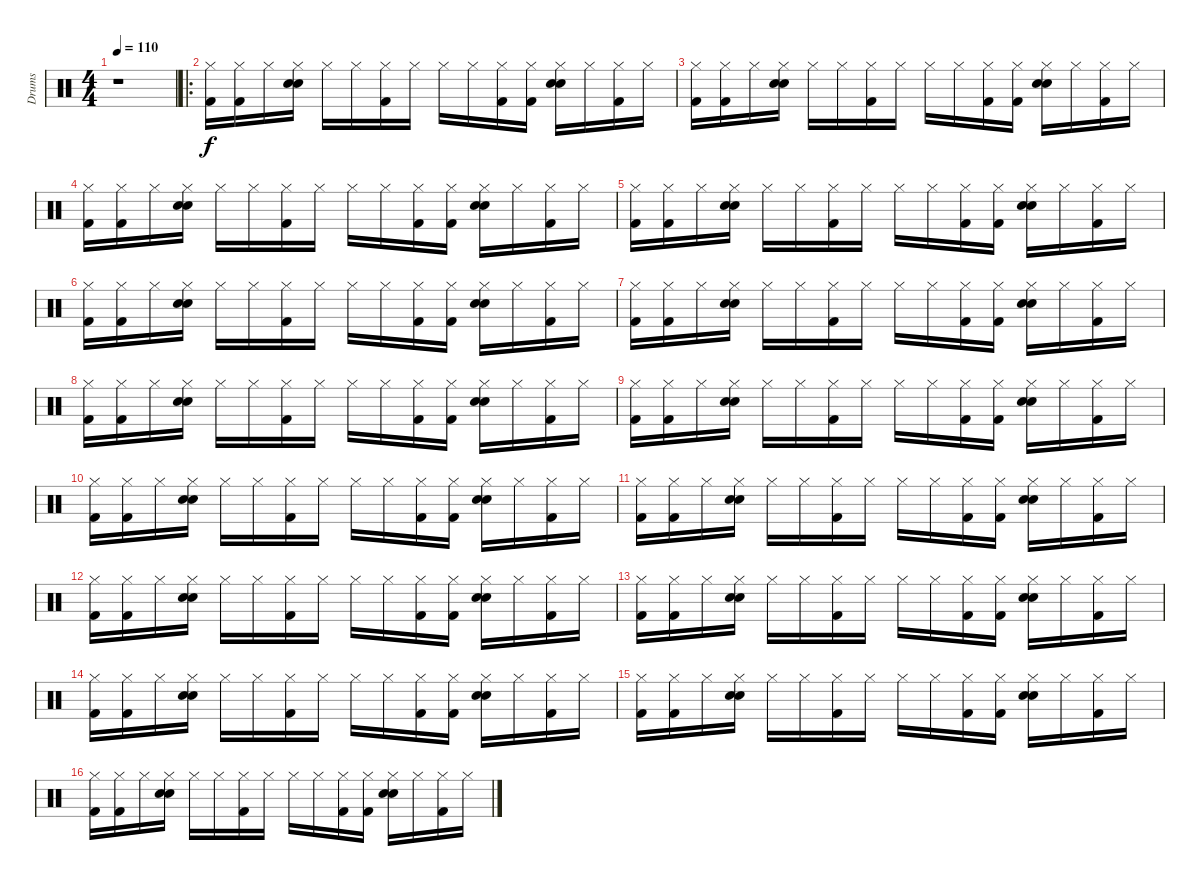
\track ("Drums" "Drums") {instrument percussion}
\staff {score}
\articulation defaults
\ts (4 4)
\tempo 110
\clef neutral
\ks c
r.1{dy f} |
\ro
("Hi-Hat (closed)" "Kick (hit) 2").16 ("Hi-Hat (closed)" "Kick (hit) 2").16 "Hi-Hat (closed)".16 ("Hi-Hat (closed)" "Electric Snare (hit)" "Snare (hit) 2").16 "Hi-Hat (closed)".16 "Hi-Hat (closed)".16 ("Hi-Hat (closed)" "Kick (hit) 2").16 "Hi-Hat (closed)".16 "Hi-Hat (closed)".16 "Hi-Hat (closed)".16 ("Hi-Hat (closed)" "Kick (hit) 2").16 ("Hi-Hat (closed)" "Kick (hit) 2").16 ("Hi-Hat (closed)" "Electric Snare (hit)" "Snare (hit) 2").16 "Hi-Hat (closed)".16 ("Hi-Hat (closed)" "Kick (hit) 2").16 "Hi-Hat (closed)".16 |
("Hi-Hat (closed)" "Kick (hit) 2").16 ("Hi-Hat (closed)" "Kick (hit) 2").16 "Hi-Hat (closed)".16 ("Hi-Hat (closed)" "Electric Snare (hit)" "Snare (hit) 2").16 "Hi-Hat (closed)".16 "Hi-Hat (closed)".16 ("Hi-Hat (closed)" "Kick (hit) 2").16 "Hi-Hat (closed)".16 "Hi-Hat (closed)".16 "Hi-Hat (closed)".16 ("Hi-Hat (closed)" "Kick (hit) 2").16 ("Hi-Hat (closed)" "Kick (hit) 2").16 ("Hi-Hat (closed)" "Electric Snare (hit)" "Snare (hit) 2").16 "Hi-Hat (closed)".16 ("Hi-Hat (closed)" "Kick (hit) 2").16 "Hi-Hat (closed)".16 |
("Hi-Hat (closed)" "Kick (hit) 2").16 ("Hi-Hat (closed)" "Kick (hit) 2").16 "Hi-Hat (closed)".16 ("Hi-Hat (closed)" "Electric Snare (hit)" "Snare (hit) 2").16 "Hi-Hat (closed)".16 "Hi-Hat (closed)".16 ("Hi-Hat (closed)" "Kick (hit) 2").16 "Hi-Hat (closed)".16 "Hi-Hat (closed)".16 "Hi-Hat (closed)".16 ("Hi-Hat (closed)" "Kick (hit) 2").16 ("Hi-Hat (closed)" "Kick (hit) 2").16 ("Hi-Hat (closed)" "Electric Snare (hit)" "Snare (hit) 2").16 "Hi-Hat (closed)".16 ("Hi-Hat (closed)" "Kick (hit) 2").16 "Hi-Hat (closed)".16 |
("Hi-Hat (closed)" "Kick (hit) 2").16 ("Hi-Hat (closed)" "Kick (hit) 2").16 "Hi-Hat (closed)".16 ("Hi-Hat (closed)" "Electric Snare (hit)" "Snare (hit) 2").16 "Hi-Hat (closed)".16 "Hi-Hat (closed)".16 ("Hi-Hat (closed)" "Kick (hit) 2").16 "Hi-Hat (closed)".16 "Hi-Hat (closed)".16 "Hi-Hat (closed)".16 ("Hi-Hat (closed)" "Kick (hit) 2").16 ("Hi-Hat (closed)" "Kick (hit) 2").16 ("Hi-Hat (closed)" "Electric Snare (hit)" "Snare (hit) 2").16 "Hi-Hat (closed)".16 ("Hi-Hat (closed)" "Kick (hit) 2").16 "Hi-Hat (closed)".16 |
("Hi-Hat (closed)" "Kick (hit) 2").16 ("Hi-Hat (closed)" "Kick (hit) 2").16 "Hi-Hat (closed)".16 ("Hi-Hat (closed)" "Electric Snare (hit)" "Snare (hit) 2").16 "Hi-Hat (closed)".16 "Hi-Hat (closed)".16 ("Hi-Hat (closed)" "Kick (hit) 2").16 "Hi-Hat (closed)".16 "Hi-Hat (closed)".16 "Hi-Hat (closed)".16 ("Hi-Hat (closed)" "Kick (hit) 2").16 ("Hi-Hat (closed)" "Kick (hit) 2").16 ("Hi-Hat (closed)" "Electric Snare (hit)" "Snare (hit) 2").16 "Hi-Hat (closed)".16 ("Hi-Hat (closed)" "Kick (hit) 2").16 "Hi-Hat (closed)".16 |
("Hi-Hat (closed)" "Kick (hit) 2").16 ("Hi-Hat (closed)" "Kick (hit) 2").16 "Hi-Hat (closed)".16 ("Hi-Hat (closed)" "Electric Snare (hit)" "Snare (hit) 2").16 "Hi-Hat (closed)".16 "Hi-Hat (closed)".16 ("Hi-Hat (closed)" "Kick (hit) 2").16 "Hi-Hat (closed)".16 "Hi-Hat (closed)".16 "Hi-Hat (closed)".16 ("Hi-Hat (closed)" "Kick (hit) 2").16 ("Hi-Hat (closed)" "Kick (hit) 2").16 ("Hi-Hat (closed)" "Electric Snare (hit)" "Snare (hit) 2").16 "Hi-Hat (closed)".16 ("Hi-Hat (closed)" "Kick (hit) 2").16 "Hi-Hat (closed)".16 |
("Hi-Hat (closed)" "Kick (hit) 2").16 ("Hi-Hat (closed)" "Kick (hit) 2").16 "Hi-Hat (closed)".16 ("Hi-Hat (closed)" "Electric Snare (hit)" "Snare (hit) 2").16 "Hi-Hat (closed)".16 "Hi-Hat (closed)".16 ("Hi-Hat (closed)" "Kick (hit) 2").16 "Hi-Hat (closed)".16 "Hi-Hat (closed)".16 "Hi-Hat (closed)".16 ("Hi-Hat (closed)" "Kick (hit) 2").16 ("Hi-Hat (closed)" "Kick (hit) 2").16 ("Hi-Hat (closed)" "Electric Snare (hit)" "Snare (hit) 2").16 "Hi-Hat (closed)".16 ("Hi-Hat (closed)" "Kick (hit) 2").16 "Hi-Hat (closed)".16 |
("Hi-Hat (closed)" "Kick (hit) 2").16 ("Hi-Hat (closed)" "Kick (hit) 2").16 "Hi-Hat (closed)".16 ("Hi-Hat (closed)" "Electric Snare (hit)" "Snare (hit) 2").16 "Hi-Hat (closed)".16 "Hi-Hat (closed)".16 ("Hi-Hat (closed)" "Kick (hit) 2").16 "Hi-Hat (closed)".16 "Hi-Hat (closed)".16 "Hi-Hat (closed)".16 ("Hi-Hat (closed)" "Kick (hit) 2").16 ("Hi-Hat (closed)" "Kick (hit) 2").16 ("Hi-Hat (closed)" "Electric Snare (hit)" "Snare (hit) 2").16 "Hi-Hat (closed)".16 ("Hi-Hat (closed)" "Kick (hit) 2").16 "Hi-Hat (closed)".16 |
("Hi-Hat (closed)" "Kick (hit) 2").16 ("Hi-Hat (closed)" "Kick (hit) 2").16 "Hi-Hat (closed)".16 ("Hi-Hat (closed)" "Electric Snare (hit)" "Snare (hit) 2").16 "Hi-Hat (closed)".16 "Hi-Hat (closed)".16 ("Hi-Hat (closed)" "Kick (hit) 2").16 "Hi-Hat (closed)".16 "Hi-Hat (closed)".16 "Hi-Hat (closed)".16 ("Hi-Hat (closed)" "Kick (hit) 2").16 ("Hi-Hat (closed)" "Kick (hit) 2").16 ("Hi-Hat (closed)" "Electric Snare (hit)" "Snare (hit) 2").16 "Hi-Hat (closed)".16 ("Hi-Hat (closed)" "Kick (hit) 2").16 "Hi-Hat (closed)".16 |
("Hi-Hat (closed)" "Kick (hit) 2").16 ("Hi-Hat (closed)" "Kick (hit) 2").16 "Hi-Hat (closed)".16 ("Hi-Hat (closed)" "Electric Snare (hit)" "Snare (hit) 2").16 "Hi-Hat (closed)".16 "Hi-Hat (closed)".16 ("Hi-Hat (closed)" "Kick (hit) 2").16 "Hi-Hat (closed)".16 "Hi-Hat (closed)".16 "Hi-Hat (closed)".16 ("Hi-Hat (closed)" "Kick (hit) 2").16 ("Hi-Hat (closed)" "Kick (hit) 2").16 ("Hi-Hat (closed)" "Electric Snare (hit)" "Snare (hit) 2").16 "Hi-Hat (closed)".16 ("Hi-Hat (closed)" "Kick (hit) 2").16 "Hi-Hat (closed)".16 |
("Hi-Hat (closed)" "Kick (hit) 2").16 ("Hi-Hat (closed)" "Kick (hit) 2").16 "Hi-Hat (closed)".16 ("Hi-Hat (closed)" "Electric Snare (hit)" "Snare (hit) 2").16 "Hi-Hat (closed)".16 "Hi-Hat (closed)".16 ("Hi-Hat (closed)" "Kick (hit) 2").16 "Hi-Hat (closed)".16 "Hi-Hat (closed)".16 "Hi-Hat (closed)".16 ("Hi-Hat (closed)" "Kick (hit) 2").16 ("Hi-Hat (closed)" "Kick (hit) 2").16 ("Hi-Hat (closed)" "Electric Snare (hit)" "Snare (hit) 2").16 "Hi-Hat (closed)".16 ("Hi-Hat (closed)" "Kick (hit) 2").16 "Hi-Hat (closed)".16 |
("Hi-Hat (closed)" "Kick (hit) 2").16 ("Hi-Hat (closed)" "Kick (hit) 2").16 "Hi-Hat (closed)".16 ("Hi-Hat (closed)" "Electric Snare (hit)" "Snare (hit) 2").16 "Hi-Hat (closed)".16 "Hi-Hat (closed)".16 ("Hi-Hat (closed)" "Kick (hit) 2").16 "Hi-Hat (closed)".16 "Hi-Hat (closed)".16 "Hi-Hat (closed)".16 ("Hi-Hat (closed)" "Kick (hit) 2").16 ("Hi-Hat (closed)" "Kick (hit) 2").16 ("Hi-Hat (closed)" "Electric Snare (hit)" "Snare (hit) 2").16 "Hi-Hat (closed)".16 ("Hi-Hat (closed)" "Kick (hit) 2").16 "Hi-Hat (closed)".16 |
("Hi-Hat (closed)" "Kick (hit) 2").16 ("Hi-Hat (closed)" "Kick (hit) 2").16 "Hi-Hat (closed)".16 ("Hi-Hat (closed)" "Electric Snare (hit)" "Snare (hit) 2").16 "Hi-Hat (closed)".16 "Hi-Hat (closed)".16 ("Hi-Hat (closed)" "Kick (hit) 2").16 "Hi-Hat (closed)".16 "Hi-Hat (closed)".16 "Hi-Hat (closed)".16 ("Hi-Hat (closed)" "Kick (hit) 2").16 ("Hi-Hat (closed)" "Kick (hit) 2").16 ("Hi-Hat (closed)" "Electric Snare (hit)" "Snare (hit) 2").16 "Hi-Hat (closed)".16 ("Hi-Hat (closed)" "Kick (hit) 2").16 "Hi-Hat (closed)".16 |
("Hi-Hat (closed)" "Kick (hit) 2").16 ("Hi-Hat (closed)" "Kick (hit) 2").16 "Hi-Hat (closed)".16 ("Hi-Hat (closed)" "Electric Snare (hit)" "Snare (hit) 2").16 "Hi-Hat (closed)".16 "Hi-Hat (closed)".16 ("Hi-Hat (closed)" "Kick (hit) 2").16 "Hi-Hat (closed)".16 "Hi-Hat (closed)".16 "Hi-Hat (closed)".16 ("Hi-Hat (closed)" "Kick (hit) 2").16 ("Hi-Hat (closed)" "Kick (hit) 2").16 ("Hi-Hat (closed)" "Electric Snare (hit)" "Snare (hit) 2").16 "Hi-Hat (closed)".16 ("Hi-Hat (closed)" "Kick (hit) 2").16 "Hi-Hat (closed)".16 |
("Hi-Hat (closed)" "Kick (hit) 2").16 ("Hi-Hat (closed)" "Kick (hit) 2").16 "Hi-Hat (closed)".16 ("Hi-Hat (closed)" "Electric Snare (hit)" "Snare (hit) 2").16 "Hi-Hat (closed)".16 "Hi-Hat (closed)".16 ("Hi-Hat (closed)" "Kick (hit) 2").16 "Hi-Hat (closed)".16 "Hi-Hat (closed)".16 "Hi-Hat (closed)".16 ("Hi-Hat (closed)" "Kick (hit) 2").16 ("Hi-Hat (closed)" "Kick (hit) 2").16 ("Hi-Hat (closed)" "Electric Snare (hit)" "Snare (hit) 2").16 "Hi-Hat (closed)".16 ("Hi-Hat (closed)" "Kick (hit) 2").16 "Hi-Hat (closed)".16
